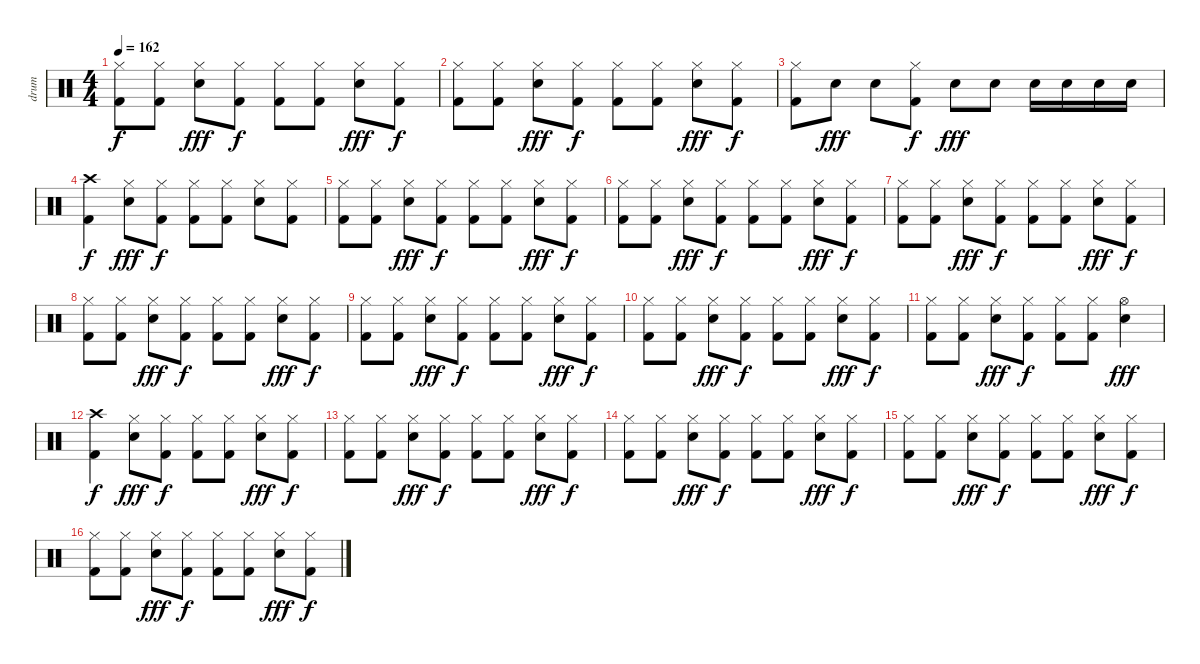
\track ("drum" "drum") {instrument percussion}
\staff {score}
\articulation defaults
\ts (4 4)
\tempo 162
\clef neutral
\ks c
("Hi-Hat (closed)" "Kick (hit) 2").8{dy f} ("Hi-Hat (closed)" "Kick (hit) 2").8 ("Hi-Hat (closed)" "Electric Snare (hit)").8{dy fff} ("Hi-Hat (closed)" "Kick (hit) 2").8{dy f} ("Hi-Hat (closed)" "Kick (hit) 2").8 ("Hi-Hat (closed)" "Kick (hit) 2").8 ("Hi-Hat (closed)" "Electric Snare (hit)").8{dy fff} ("Hi-Hat (closed)" "Kick (hit) 2").8{dy f} |
("Hi-Hat (closed)" "Kick (hit) 2").8 ("Hi-Hat (closed)" "Kick (hit) 2").8 ("Hi-Hat (closed)" "Electric Snare (hit)").8{dy fff} ("Hi-Hat (closed)" "Kick (hit) 2").8{dy f} ("Hi-Hat (closed)" "Kick (hit) 2").8 ("Hi-Hat (closed)" "Kick (hit) 2").8 ("Hi-Hat (closed)" "Electric Snare (hit)").8{dy fff} ("Hi-Hat (closed)" "Kick (hit) 2").8{dy f} |
("Hi-Hat (closed)" "Kick (hit) 2").8 "Electric Snare (hit)".8{dy fff} "Electric Snare (hit)".8 ("Hi-Hat (closed)" "Kick (hit) 2").8{dy f} "Electric Snare (hit)".8{dy fff} "Electric Snare (hit)".8 "Electric Snare (hit)".16 "Electric Snare (hit)".16 "Electric Snare (hit)".16 "Electric Snare (hit)".16 |
("Crash high (hit)" "Kick (hit) 2").4{dy f} ("Hi-Hat (closed)" "Electric Snare (hit)").8{dy fff} ("Hi-Hat (closed)" "Kick (hit) 2").8{dy f} ("Hi-Hat (closed)" "Kick (hit) 2").8 ("Hi-Hat (closed)" "Kick (hit) 2").8 ("Hi-Hat (closed)" "Electric Snare (hit)").8 ("Hi-Hat (closed)" "Kick (hit) 2").8 |
("Hi-Hat (closed)" "Kick (hit) 2").8 ("Hi-Hat (closed)" "Kick (hit) 2").8 ("Hi-Hat (closed)" "Electric Snare (hit)").8{dy fff} ("Hi-Hat (closed)" "Kick (hit) 2").8{dy f} ("Hi-Hat (closed)" "Kick (hit) 2").8 ("Hi-Hat (closed)" "Kick (hit) 2").8 ("Hi-Hat (closed)" "Electric Snare (hit)").8{dy fff} ("Hi-Hat (closed)" "Kick (hit) 2").8{dy f} |
("Hi-Hat (closed)" "Kick (hit) 2").8 ("Hi-Hat (closed)" "Kick (hit) 2").8 ("Hi-Hat (closed)" "Electric Snare (hit)").8{dy fff} ("Hi-Hat (closed)" "Kick (hit) 2").8{dy f} ("Hi-Hat (closed)" "Kick (hit) 2").8 ("Hi-Hat (closed)" "Kick (hit) 2").8 ("Hi-Hat (closed)" "Electric Snare (hit)").8{dy fff} ("Hi-Hat (closed)" "Kick (hit) 2").8{dy f} |
("Hi-Hat (closed)" "Kick (hit) 2").8 ("Hi-Hat (closed)" "Kick (hit) 2").8 ("Hi-Hat (closed)" "Electric Snare (hit)").8{dy fff} ("Hi-Hat (closed)" "Kick (hit) 2").8{dy f} ("Hi-Hat (closed)" "Kick (hit) 2").8 ("Hi-Hat (closed)" "Kick (hit) 2").8 ("Hi-Hat (closed)" "Electric Snare (hit)").8{dy fff} ("Hi-Hat (closed)" "Kick (hit) 2").8{dy f} |
("Hi-Hat (closed)" "Kick (hit) 2").8 ("Hi-Hat (closed)" "Kick (hit) 2").8 ("Hi-Hat (closed)" "Electric Snare (hit)").8{dy fff} ("Hi-Hat (closed)" "Kick (hit) 2").8{dy f} ("Hi-Hat (closed)" "Kick (hit) 2").8 ("Hi-Hat (closed)" "Kick (hit) 2").8 ("Hi-Hat (closed)" "Electric Snare (hit)").8{dy fff} ("Hi-Hat (closed)" "Kick (hit) 2").8{dy f} |
("Hi-Hat (closed)" "Kick (hit) 2").8 ("Hi-Hat (closed)" "Kick (hit) 2").8 ("Hi-Hat (closed)" "Electric Snare (hit)").8{dy fff} ("Hi-Hat (closed)" "Kick (hit) 2").8{dy f} ("Hi-Hat (closed)" "Kick (hit) 2").8 ("Hi-Hat (closed)" "Kick (hit) 2").8 ("Hi-Hat (closed)" "Electric Snare (hit)").8{dy fff} ("Hi-Hat (closed)" "Kick (hit) 2").8{dy f} |
("Hi-Hat (closed)" "Kick (hit) 2").8 ("Hi-Hat (closed)" "Kick (hit) 2").8 ("Hi-Hat (closed)" "Electric Snare (hit)").8{dy fff} ("Hi-Hat (closed)" "Kick (hit) 2").8{dy f} ("Hi-Hat (closed)" "Kick (hit) 2").8 ("Hi-Hat (closed)" "Kick (hit) 2").8 ("Hi-Hat (closed)" "Electric Snare (hit)").8{dy fff} ("Hi-Hat (closed)" "Kick (hit) 2").8{dy f} |
("Hi-Hat (closed)" "Kick (hit) 2").8 ("Hi-Hat (closed)" "Kick (hit) 2").8 ("Hi-Hat (closed)" "Electric Snare (hit)").8{dy fff} ("Hi-Hat (closed)" "Kick (hit) 2").8{dy f} ("Hi-Hat (closed)" "Kick (hit) 2").8 ("Hi-Hat (closed)" "Kick (hit) 2").8 ("Hi-Hat (open)" "Electric Snare (hit)").4{dy fff} |
("Crash high (hit)" "Kick (hit) 2").4{dy f} ("Hi-Hat (closed)" "Electric Snare (hit)").8{dy fff} ("Hi-Hat (closed)" "Kick (hit) 2").8{dy f} ("Hi-Hat (closed)" "Kick (hit) 2").8 ("Hi-Hat (closed)" "Kick (hit) 2").8 ("Hi-Hat (closed)" "Electric Snare (hit)").8{dy fff} ("Hi-Hat (closed)" "Kick (hit) 2").8{dy f} |
("Hi-Hat (closed)" "Kick (hit) 2").8 ("Hi-Hat (closed)" "Kick (hit) 2").8 ("Hi-Hat (closed)" "Electric Snare (hit)").8{dy fff} ("Hi-Hat (closed)" "Kick (hit) 2").8{dy f} ("Hi-Hat (closed)" "Kick (hit) 2").8 ("Hi-Hat (closed)" "Kick (hit) 2").8 ("Hi-Hat (closed)" "Electric Snare (hit)").8{dy fff} ("Hi-Hat (closed)" "Kick (hit) 2").8{dy f} |
("Hi-Hat (closed)" "Kick (hit) 2").8 ("Hi-Hat (closed)" "Kick (hit) 2").8 ("Hi-Hat (closed)" "Electric Snare (hit)").8{dy fff} ("Hi-Hat (closed)" "Kick (hit) 2").8{dy f} ("Hi-Hat (closed)" "Kick (hit) 2").8 ("Hi-Hat (closed)" "Kick (hit) 2").8 ("Hi-Hat (closed)" "Electric Snare (hit)").8{dy fff} ("Hi-Hat (closed)" "Kick (hit) 2").8{dy f} |
("Hi-Hat (closed)" "Kick (hit) 2").8 ("Hi-Hat (closed)" "Kick (hit) 2").8 ("Hi-Hat (closed)" "Electric Snare (hit)").8{dy fff} ("Hi-Hat (closed)" "Kick (hit) 2").8{dy f} ("Hi-Hat (closed)" "Kick (hit) 2").8 ("Hi-Hat (closed)" "Kick (hit) 2").8 ("Hi-Hat (closed)" "Electric Snare (hit)").8{dy fff} ("Hi-Hat (closed)" "Kick (hit) 2").8{dy f} |
("Hi-Hat (closed)" "Kick (hit) 2").8 ("Hi-Hat (closed)" "Kick (hit) 2").8 ("Hi-Hat (closed)" "Electric Snare (hit)").8{dy fff} ("Hi-Hat (closed)" "Kick (hit) 2").8{dy f} ("Hi-Hat (closed)" "Kick (hit) 2").8 ("Hi-Hat (closed)" "Kick (hit) 2").8 ("Hi-Hat (closed)" "Electric Snare (hit)").8{dy fff} ("Hi-Hat (closed)" "Kick (hit) 2").8{dy f}
